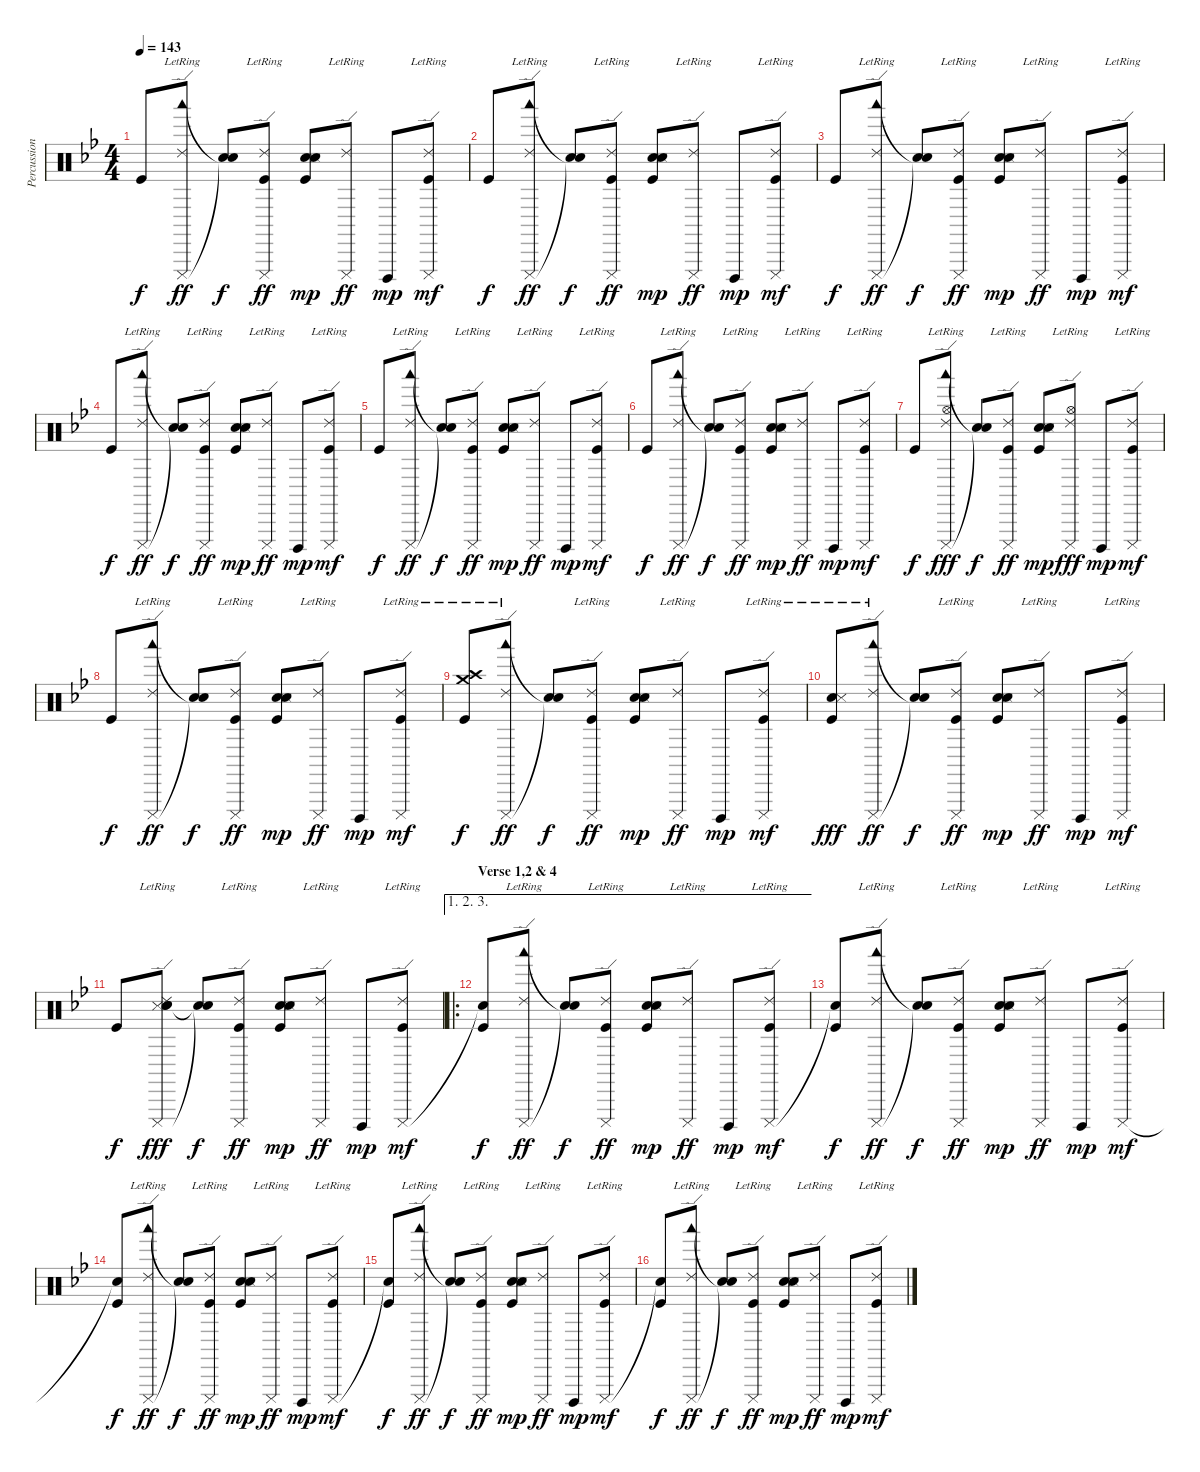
\track ("Percussion" "Percussion") {instrument percussion}
\staff {score}
\articulation defaults
\ts (4 4)
\tempo 143
\clef neutral
\ks gminor "Kick (hit)".8{dy f}
("Cuica (mute)" "Woodblock low (hit)" "Ride (edge) 2"{lr}).8{dy ff} ("Snare (hit)"{t} "Snare (hit)"{t}).8{dy f} ("Cuica (mute)" "Ride (edge) 2"{lr} "Kick (hit)").8{dy ff} ("Snare (hit) 2" "Snare (side stick) 3" "Snare (hit) 2" "Kick (hit)").8{dy mp} ("Cuica (mute)" "Ride (edge) 2"{lr}).8{dy ff} "Cuica (open)".8{dy mp} ("Cuica (mute)" "Ride (edge) 2"{lr} "Kick (hit)").8{dy mf} |
"Kick (hit)".8{dy f} ("Cuica (mute)" "Woodblock low (hit)" "Ride (edge) 2"{lr}).8{dy ff} ("Snare (hit)"{t} "Snare (hit)"{t}).8{dy f} ("Cuica (mute)" "Ride (edge) 2"{lr} "Kick (hit)").8{dy ff} ("Snare (hit) 2" "Snare (side stick) 3" "Snare (hit) 2" "Kick (hit)").8{dy mp} ("Cuica (mute)" "Ride (edge) 2"{lr}).8{dy ff} "Cuica (open)".8{dy mp} ("Cuica (mute)" "Ride (edge) 2"{lr} "Kick (hit)").8{dy mf} |
"Kick (hit)".8{dy f} ("Cuica (mute)" "Woodblock low (hit)" "Ride (edge) 2"{lr}).8{dy ff} ("Snare (hit)"{t} "Snare (hit)"{t}).8{dy f} ("Cuica (mute)" "Ride (edge) 2"{lr} "Kick (hit)").8{dy ff} ("Snare (hit) 2" "Snare (side stick) 3" "Snare (hit) 2" "Kick (hit)").8{dy mp} ("Cuica (mute)" "Ride (edge) 2"{lr}).8{dy ff} "Cuica (open)".8{dy mp} ("Cuica (mute)" "Ride (edge) 2"{lr} "Kick (hit)").8{dy mf} |
"Kick (hit)".8{dy f} ("Cuica (mute)" "Woodblock low (hit)" "Ride (edge) 2"{lr}).8{dy ff} ("Snare (hit)"{t} "Snare (hit)"{t}).8{dy f} ("Cuica (mute)" "Ride (edge) 2"{lr} "Kick (hit)").8{dy ff} ("Snare (hit) 2" "Snare (side stick) 3" "Snare (hit) 2" "Kick (hit)").8{dy mp} ("Cuica (mute)" "Ride (edge) 2"{lr}).8{dy ff} "Cuica (open)".8{dy mp} ("Cuica (mute)" "Ride (edge) 2"{lr} "Kick (hit)").8{dy mf} |
"Kick (hit)".8{dy f} ("Cuica (mute)" "Woodblock low (hit)" "Ride (edge) 2"{lr}).8{dy ff} ("Snare (hit)"{t} "Snare (hit)"{t}).8{dy f} ("Cuica (mute)" "Ride (edge) 2"{lr} "Kick (hit)").8{dy ff} ("Snare (hit) 2" "Snare (side stick) 3" "Snare (hit) 2" "Kick (hit)").8{dy mp} ("Cuica (mute)" "Ride (edge) 2"{lr}).8{dy ff} "Cuica (open)".8{dy mp} ("Cuica (mute)" "Ride (edge) 2"{lr} "Kick (hit)").8{dy mf} |
"Kick (hit)".8{dy f} ("Cuica (mute)" "Woodblock low (hit)" "Ride (edge) 2"{lr}).8{dy ff} ("Snare (hit)"{t} "Snare (hit)"{t}).8{dy f} ("Cuica (mute)" "Ride (edge) 2"{lr} "Kick (hit)").8{dy ff} ("Snare (hit) 2" "Snare (side stick) 3" "Snare (hit) 2" "Kick (hit)").8{dy mp} ("Cuica (mute)" "Ride (edge) 2"{lr}).8{dy ff} "Cuica (open)".8{dy mp} ("Cuica (mute)" "Ride (edge) 2"{lr} "Kick (hit)").8{dy mf} |
"Kick (hit)".8{dy f} ("Cuica (mute)" "Woodblock low (hit)" "Ride (edge) 2"{lr} "Hi-Hat (open)"{lr}).8{dy fff} ("Snare (hit)"{t} "Snare (hit)"{t}).8{dy f} ("Cuica (mute)" "Ride (edge) 2"{lr} "Kick (hit)").8{dy ff} ("Snare (hit) 2" "Snare (side stick) 3" "Snare (hit) 2" "Kick (hit)").8{dy mp} ("Cuica (mute)" "Ride (edge) 2"{lr} "Hi-Hat (open)"{lr}).8{dy fff} "Cuica (open)".8{dy mp} ("Cuica (mute)" "Ride (edge) 2"{lr} "Kick (hit)").8{dy mf} |
"Kick (hit)".8{dy f} ("Cuica (mute)" "Woodblock low (hit)" "Ride (edge) 2"{lr}).8{dy ff} ("Snare (hit)"{t} "Snare (hit)"{t}).8{dy f} ("Cuica (mute)" "Ride (edge) 2"{lr} "Kick (hit)").8{dy ff} ("Snare (hit) 2" "Snare (side stick) 3" "Snare (hit) 2" "Kick (hit)").8{dy mp} ("Cuica (mute)" "Ride (edge) 2"{lr}).8{dy ff} "Cuica (open)".8{dy mp} ("Cuica (mute)" "Ride (edge) 2"{lr} "Kick (hit)").8{dy mf} |
("Crash medium (hit)"{lr} "Crash high (hit)"{lr} "Kick (hit)").8{dy f} ("Cuica (mute)" "Woodblock low (hit)" "Ride (edge) 2"{lr}).8{dy ff} ("Snare (hit)"{t} "Snare (hit)"{t}).8{dy f} ("Cuica (mute)" "Ride (edge) 2"{lr} "Kick (hit)").8{dy ff} ("Snare (hit) 2" "Snare (side stick) 3" "Snare (hit) 2" "Kick (hit)").8{dy mp} ("Cuica (mute)" "Ride (edge) 2"{lr}).8{dy ff} "Cuica (open)".8{dy mp} ("Cuica (mute)" "Ride (edge) 2"{lr} "Kick (hit)").8{dy mf} |
("Electric Snare (hit)"{lr} "Snare (side stick) 3" "Kick (hit)").8{dy fff} ("Cuica (mute)" "Woodblock low (hit)" "Ride (edge) 2"{lr}).8{dy ff} ("Snare (hit)"{t} "Snare (hit)"{t}).8{dy f} ("Cuica (mute)" "Ride (edge) 2"{lr} "Kick (hit)").8{dy ff} ("Snare (hit) 2" "Snare (side stick) 3" "Snare (hit) 2" "Kick (hit)").8{dy mp} ("Cuica (mute)" "Ride (edge) 2"{lr}).8{dy ff} "Cuica (open)".8{dy mp} ("Cuica (mute)" "Ride (edge) 2"{lr} "Kick (hit)").8{dy mf} |
"Kick (hit)".8{dy f} ("Cuica (mute)" "Snare (side stick) 3" "Snare (hit) 2" "Ride (edge) 2"{lr} "Snare (hit) 2").8{dy fff} ("Snare (hit)"{t} "Snare (hit)"{t}).8{dy f} ("Cuica (mute)" "Ride (edge) 2"{lr} "Kick (hit)").8{dy ff} ("Snare (hit) 2" "Snare (side stick) 3" "Snare (hit) 2" "Kick (hit)").8{dy mp} ("Cuica (mute)" "Ride (edge) 2"{lr}).8{dy ff} "Cuica (open)".8{dy mp} ("Cuica (mute)" "Ride (edge) 2"{lr} "Kick (hit)").8{dy mf} |
\ae (1 2 3)
\ro
\section ("" "Verse 1,2 & 4")
("Snare (hit)"{t} "Kick (hit)").8{dy f} ("Cuica (mute)" "Woodblock low (hit)" "Ride (edge) 2"{lr}).8{dy ff} ("Snare (hit)"{t} "Snare (hit)"{t}).8{dy f} ("Cuica (mute)" "Ride (edge) 2"{lr} "Kick (hit)").8{dy ff} ("Snare (hit) 2" "Snare (side stick) 3" "Snare (hit) 2" "Kick (hit)").8{dy mp} ("Cuica (mute)" "Ride (edge) 2"{lr}).8{dy ff} "Cuica (open)".8{dy mp} ("Cuica (mute)" "Ride (edge) 2"{lr} "Kick (hit)").8{dy mf} |
("Snare (hit)"{t} "Kick (hit)").8{dy f} ("Cuica (mute)" "Woodblock low (hit)" "Ride (edge) 2"{lr}).8{dy ff} ("Snare (hit)"{t} "Snare (hit)"{t}).8{dy f} ("Cuica (mute)" "Ride (edge) 2"{lr} "Kick (hit)").8{dy ff} ("Snare (hit) 2" "Snare (side stick) 3" "Snare (hit) 2" "Kick (hit)").8{dy mp} ("Cuica (mute)" "Ride (edge) 2"{lr}).8{dy ff} "Cuica (open)".8{dy mp} ("Cuica (mute)" "Ride (edge) 2"{lr} "Kick (hit)").8{dy mf} |
("Snare (hit)"{t} "Kick (hit)").8{dy f} ("Cuica (mute)" "Woodblock low (hit)" "Ride (edge) 2"{lr}).8{dy ff} ("Snare (hit)"{t} "Snare (hit)"{t}).8{dy f} ("Cuica (mute)" "Ride (edge) 2"{lr} "Kick (hit)").8{dy ff} ("Snare (hit) 2" "Snare (side stick) 3" "Snare (hit) 2" "Kick (hit)").8{dy mp} ("Cuica (mute)" "Ride (edge) 2"{lr}).8{dy ff} "Cuica (open)".8{dy mp} ("Cuica (mute)" "Ride (edge) 2"{lr} "Kick (hit)").8{dy mf} |
("Snare (hit)"{t} "Kick (hit)").8{dy f} ("Cuica (mute)" "Woodblock low (hit)" "Ride (edge) 2"{lr}).8{dy ff} ("Snare (hit)"{t} "Snare (hit)"{t}).8{dy f} ("Cuica (mute)" "Ride (edge) 2"{lr} "Kick (hit)").8{dy ff} ("Snare (hit) 2" "Snare (side stick) 3" "Snare (hit) 2" "Kick (hit)").8{dy mp} ("Cuica (mute)" "Ride (edge) 2"{lr}).8{dy ff} "Cuica (open)".8{dy mp} ("Cuica (mute)" "Ride (edge) 2"{lr} "Kick (hit)").8{dy mf} |
("Snare (hit)"{t} "Kick (hit)").8{dy f} ("Cuica (mute)" "Woodblock low (hit)" "Ride (edge) 2"{lr}).8{dy ff} ("Snare (hit)"{t} "Snare (hit)"{t}).8{dy f} ("Cuica (mute)" "Ride (edge) 2"{lr} "Kick (hit)").8{dy ff} ("Snare (hit) 2" "Snare (side stick) 3" "Snare (hit) 2" "Kick (hit)").8{dy mp} ("Cuica (mute)" "Ride (edge) 2"{lr}).8{dy ff} "Cuica (open)".8{dy mp} ("Cuica (mute)" "Ride (edge) 2"{lr} "Kick (hit)").8{dy mf}
